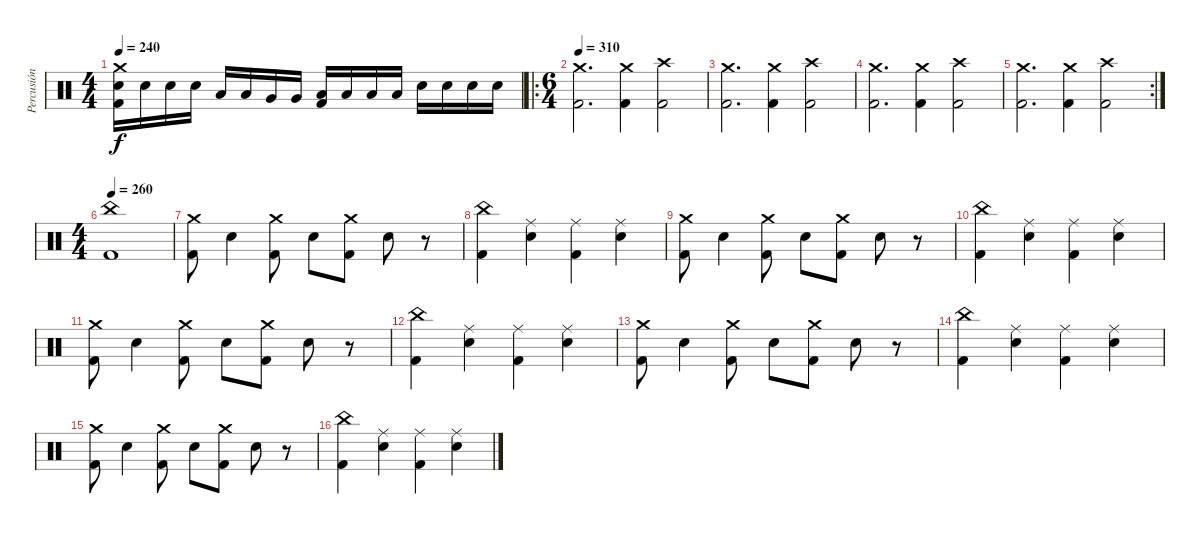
\track ("Percusión" "Percusión") {instrument percussion}
\staff {score}
\articulation defaults
\ts (4 4)
\tempo 240
\clef neutral
\ks c
("Crash medium (hit)" "Electric Snare (hit)" "Kick (hit) 2").16{dy f} "Electric Snare (hit)".16 "Electric Snare (hit)".16 "Electric Snare (hit)".16 "Low Tom (hit)".16 "Low Tom (hit)".16 "Very Low Tom (hit)".16 "Very Low Tom (hit)".16 ("Low Tom (hit)" "Kick (hit) 2").16 "Low Tom (hit)".16 "Low Tom (hit)".16 "Low Tom (hit)".16 "Electric Snare (hit)".16 "Electric Snare (hit)".16 "Electric Snare (hit)".16 "Electric Snare (hit)".16 |
\ro
\ts (6 4)
\tempo 310
("Crash medium (hit)" "Kick (hit) 2").2{d} ("Crash medium (hit)" "Kick (hit) 2").4 ("Crash high (hit)" "Kick (hit) 2").2 |
("Crash medium (hit)" "Kick (hit) 2").2{d} ("Crash medium (hit)" "Kick (hit) 2").4 ("Crash high (hit)" "Kick (hit) 2").2 |
("Crash medium (hit)" "Kick (hit) 2").2{d} ("Crash medium (hit)" "Kick (hit) 2").4 ("Crash high (hit)" "Kick (hit) 2").2 |
\rc 2
("Crash medium (hit)" "Kick (hit) 2").2{d} ("Crash medium (hit)" "Kick (hit) 2").4 ("Crash high (hit)" "Kick (hit) 2").2 |
\ts (4 4)
\tempo 270
\tempo 260
("China (hit)" "Kick (hit) 2").1 |
("Crash medium (hit)" "Kick (hit) 2").8 "Electric Snare (hit)".4 ("Crash medium (hit)" "Kick (hit) 2").8 "Electric Snare (hit)".8 ("Crash medium (hit)" "Kick (hit) 2").8 "Electric Snare (hit)".8 r.8 |
("China (hit)" "Kick (hit) 2").4 ("Ride (middle)" "Electric Snare (hit)").4 ("Ride (middle)" "Kick (hit) 2").4 ("Ride (middle)" "Electric Snare (hit)").4 |
("Crash medium (hit)" "Kick (hit) 2").8 "Electric Snare (hit)".4 ("Crash medium (hit)" "Kick (hit) 2").8 "Electric Snare (hit)".8 ("Crash medium (hit)" "Kick (hit) 2").8 "Electric Snare (hit)".8 r.8 |
("China (hit)" "Kick (hit) 2").4 ("Ride (middle)" "Electric Snare (hit)").4 ("Ride (middle)" "Kick (hit) 2").4 ("Ride (middle)" "Electric Snare (hit)").4 |
("Crash medium (hit)" "Kick (hit) 2").8 "Electric Snare (hit)".4 ("Crash medium (hit)" "Kick (hit) 2").8 "Electric Snare (hit)".8 ("Crash medium (hit)" "Kick (hit) 2").8 "Electric Snare (hit)".8 r.8 |
("China (hit)" "Kick (hit) 2").4 ("Ride (middle)" "Electric Snare (hit)").4 ("Ride (middle)" "Kick (hit) 2").4 ("Ride (middle)" "Electric Snare (hit)").4 |
("Crash medium (hit)" "Kick (hit) 2").8 "Electric Snare (hit)".4 ("Crash medium (hit)" "Kick (hit) 2").8 "Electric Snare (hit)".8 ("Crash medium (hit)" "Kick (hit) 2").8 "Electric Snare (hit)".8 r.8 |
("China (hit)" "Kick (hit) 2").4 ("Ride (middle)" "Electric Snare (hit)").4 ("Ride (middle)" "Kick (hit) 2").4 ("Ride (middle)" "Electric Snare (hit)").4 |
("Crash medium (hit)" "Kick (hit) 2").8 "Electric Snare (hit)".4 ("Crash medium (hit)" "Kick (hit) 2").8 "Electric Snare (hit)".8 ("Crash medium (hit)" "Kick (hit) 2").8 "Electric Snare (hit)".8 r.8 |
("China (hit)" "Kick (hit) 2").4 ("Ride (middle)" "Electric Snare (hit)").4 ("Ride (middle)" "Kick (hit) 2").4 ("Ride (middle)" "Electric Snare (hit)").4
